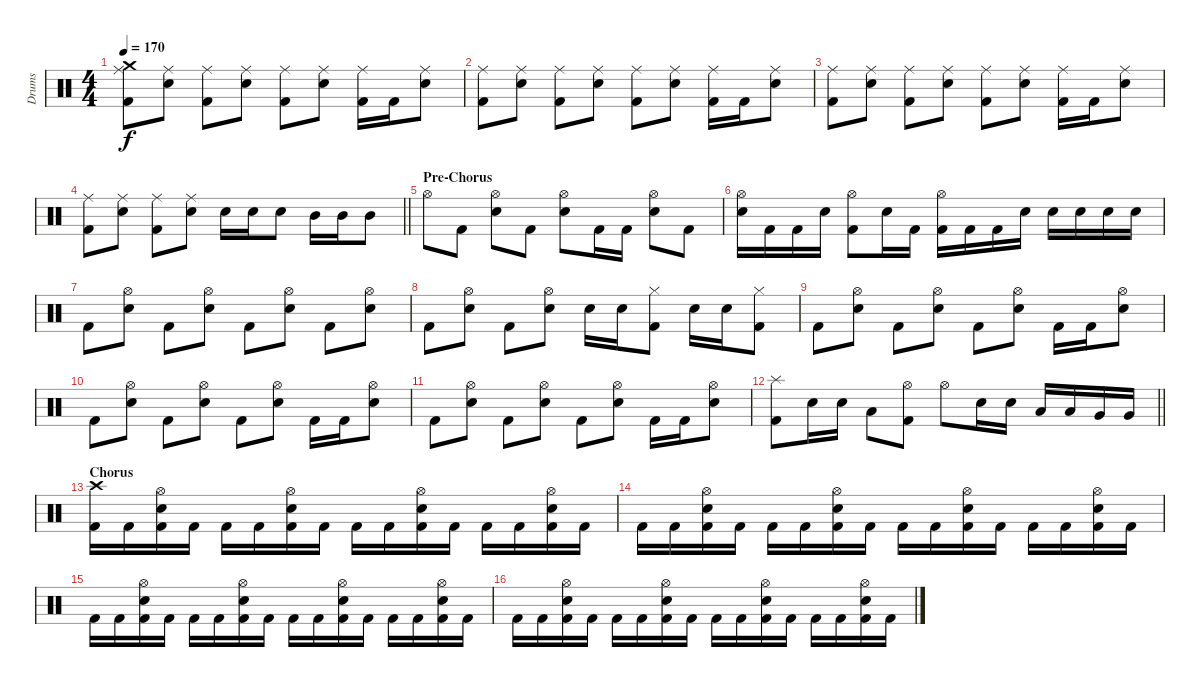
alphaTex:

\track ("Drums" "Drums") {instrument percussion}
\staff {score}
\articulation defaults
\ts (4 4)
\tempo 170
\clef neutral
\ks c
("Crash medium (hit)" "Ride (middle)" "Kick (hit) 2").8{dy f} ("Ride (middle)" "Electric Snare (hit)").8 ("Ride (middle)" "Kick (hit) 2").8 ("Ride (middle)" "Electric Snare (hit)").8 ("Ride (middle)" "Kick (hit) 2").8 ("Ride (middle)" "Electric Snare (hit)").8 ("Ride (middle)" "Kick (hit) 2").16 "Kick (hit) 2".16 ("Ride (middle)" "Electric Snare (hit)").8 |
("Ride (middle)" "Kick (hit) 2").8 ("Ride (middle)" "Electric Snare (hit)").8 ("Ride (middle)" "Kick (hit) 2").8 ("Ride (middle)" "Electric Snare (hit)").8 ("Ride (middle)" "Kick (hit) 2").8 ("Ride (middle)" "Electric Snare (hit)").8 ("Ride (middle)" "Kick (hit) 2").16 "Kick (hit) 2".16 ("Ride (middle)" "Electric Snare (hit)").8 |
("Ride (middle)" "Kick (hit) 2").8 ("Ride (middle)" "Electric Snare (hit)").8 ("Ride (middle)" "Kick (hit) 2").8 ("Ride (middle)" "Electric Snare (hit)").8 ("Ride (middle)" "Kick (hit) 2").8 ("Ride (middle)" "Electric Snare (hit)").8 ("Ride (middle)" "Kick (hit) 2").16 "Kick (hit) 2".16 ("Ride (middle)" "Electric Snare (hit)").8 |
\barLineRight lightlight
("Ride (middle)" "Kick (hit) 2").8 ("Ride (middle)" "Electric Snare (hit)").8 ("Ride (middle)" "Kick (hit) 2").8 ("Ride (middle)" "Electric Snare (hit)").8 "Electric Snare (hit)".16 "Electric Snare (hit)".16 "Electric Snare (hit)".8 "Mid Tom (hit)".16 "Mid Tom (hit)".16 "Mid Tom (hit)".8 |
\section ("" "Pre-Chorus")
"Hi-Hat (open)".8 "Kick (hit) 2".8 ("Hi-Hat (open)" "Electric Snare (hit)").8 "Kick (hit) 2".8 ("Hi-Hat (open)" "Electric Snare (hit)").8 "Kick (hit) 2".16 "Kick (hit) 2".16 ("Hi-Hat (open)" "Electric Snare (hit)").8 "Kick (hit) 2".8 |
("Hi-Hat (open)" "Electric Snare (hit)").16 "Kick (hit) 2".16 "Kick (hit) 2".16 "Electric Snare (hit)".16 ("Hi-Hat (open)" "Kick (hit) 2").8 "Electric Snare (hit)".16 "Kick (hit) 2".16 ("Hi-Hat (open)" "Kick (hit) 2").16 "Kick (hit) 2".16 "Kick (hit) 2".16 "Electric Snare (hit)".16 "Electric Snare (hit)".16 "Electric Snare (hit)".16 "Electric Snare (hit)".16 "Electric Snare (hit)".16 |
"Kick (hit) 2".8 ("Hi-Hat (open)" "Electric Snare (hit)").8 "Kick (hit) 2".8 ("Hi-Hat (open)" "Electric Snare (hit)").8 "Kick (hit) 2".8 ("Hi-Hat (open)" "Electric Snare (hit)").8 "Kick (hit) 2".8 ("Hi-Hat (open)" "Electric Snare (hit)").8 |
"Kick (hit) 2".8 ("Hi-Hat (open)" "Electric Snare (hit)").8 "Kick (hit) 2".8 ("Hi-Hat (open)" "Electric Snare (hit)").8 "Electric Snare (hit)".16 "Electric Snare (hit)".16 ("Hi-Hat (closed)" "Kick (hit) 2").8 "Electric Snare (hit)".16 "Electric Snare (hit)".16 ("Hi-Hat (closed)" "Kick (hit) 2").8 |
"Kick (hit) 2".8 ("Hi-Hat (open)" "Electric Snare (hit)").8 "Kick (hit) 2".8 ("Hi-Hat (open)" "Electric Snare (hit)").8 "Kick (hit) 2".8 ("Hi-Hat (open)" "Electric Snare (hit)").8 "Kick (hit) 2".16 "Kick (hit) 2".16 ("Hi-Hat (open)" "Electric Snare (hit)").8 |
"Kick (hit) 2".8 ("Hi-Hat (open)" "Electric Snare (hit)").8 "Kick (hit) 2".8 ("Hi-Hat (open)" "Electric Snare (hit)").8 "Kick (hit) 2".8 ("Hi-Hat (open)" "Electric Snare (hit)").8 "Kick (hit) 2".16 "Kick (hit) 2".16 ("Hi-Hat (open)" "Electric Snare (hit)").8 |
"Kick (hit) 2".8 ("Hi-Hat (open)" "Electric Snare (hit)").8 "Kick (hit) 2".8 ("Hi-Hat (open)" "Electric Snare (hit)").8 "Kick (hit) 2".8 ("Hi-Hat (open)" "Electric Snare (hit)").8 "Kick (hit) 2".16 "Kick (hit) 2".16 ("Hi-Hat (open)" "Electric Snare (hit)").8 |
\barLineRight lightlight
("Splash (hit)" "Kick (hit) 2").8 "Electric Snare (hit)".16 "Electric Snare (hit)".16 "Low Tom (hit)".8 ("Hi-Hat (open)" "Kick (hit) 2").8 "Hi-Hat (open)".8 "Electric Snare (hit)".16 "Electric Snare (hit)".16 "Low Tom (hit)".16 "Low Tom (hit)".16 "Very Low Tom (hit)".16 "Very Low Tom (hit)".16 |
\section ("" "Chorus")
("Crash high (hit)" "Kick (hit) 2").16 "Kick (hit) 2".16 ("Hi-Hat (open)" "Electric Snare (hit)" "Kick (hit) 2").16 "Kick (hit) 2".16 "Kick (hit) 2".16 "Kick (hit) 2".16 ("Hi-Hat (open)" "Electric Snare (hit)" "Kick (hit) 2").16 "Kick (hit) 2".16 "Kick (hit) 2".16 "Kick (hit) 2".16 ("Hi-Hat (open)" "Electric Snare (hit)" "Kick (hit) 2").16 "Kick (hit) 2".16 "Kick (hit) 2".16 "Kick (hit) 2".16 ("Hi-Hat (open)" "Electric Snare (hit)" "Kick (hit) 2").16 "Kick (hit) 2".16 |
"Kick (hit) 2".16 "Kick (hit) 2".16 ("Hi-Hat (open)" "Electric Snare (hit)" "Kick (hit) 2").16 "Kick (hit) 2".16 "Kick (hit) 2".16 "Kick (hit) 2".16 ("Hi-Hat (open)" "Electric Snare (hit)" "Kick (hit) 2").16 "Kick (hit) 2".16 "Kick (hit) 2".16 "Kick (hit) 2".16 ("Hi-Hat (open)" "Electric Snare (hit)" "Kick (hit) 2").16 "Kick (hit) 2".16 "Kick (hit) 2".16 "Kick (hit) 2".16 ("Hi-Hat (open)" "Electric Snare (hit)" "Kick (hit) 2").16 "Kick (hit) 2".16 |
"Kick (hit) 2".16 "Kick (hit) 2".16 ("Hi-Hat (open)" "Electric Snare (hit)" "Kick (hit) 2").16 "Kick (hit) 2".16 "Kick (hit) 2".16 "Kick (hit) 2".16 ("Hi-Hat (open)" "Electric Snare (hit)" "Kick (hit) 2").16 "Kick (hit) 2".16 "Kick (hit) 2".16 "Kick (hit) 2".16 ("Hi-Hat (open)" "Electric Snare (hit)" "Kick (hit) 2").16 "Kick (hit) 2".16 "Kick (hit) 2".16 "Kick (hit) 2".16 ("Hi-Hat (open)" "Electric Snare (hit)" "Kick (hit) 2").16 "Kick (hit) 2".16 |
"Kick (hit) 2".16 "Kick (hit) 2".16 ("Hi-Hat (open)" "Electric Snare (hit)" "Kick (hit) 2").16 "Kick (hit) 2".16 "Kick (hit) 2".16 "Kick (hit) 2".16 ("Hi-Hat (open)" "Electric Snare (hit)" "Kick (hit) 2").16 "Kick (hit) 2".16 "Kick (hit) 2".16 "Kick (hit) 2".16 ("Hi-Hat (open)" "Electric Snare (hit)" "Kick (hit) 2").16 "Kick (hit) 2".16 "Kick (hit) 2".16 "Kick (hit) 2".16 ("Hi-Hat (open)" "Electric Snare (hit)" "Kick (hit) 2").16 "Kick (hit) 2".16
